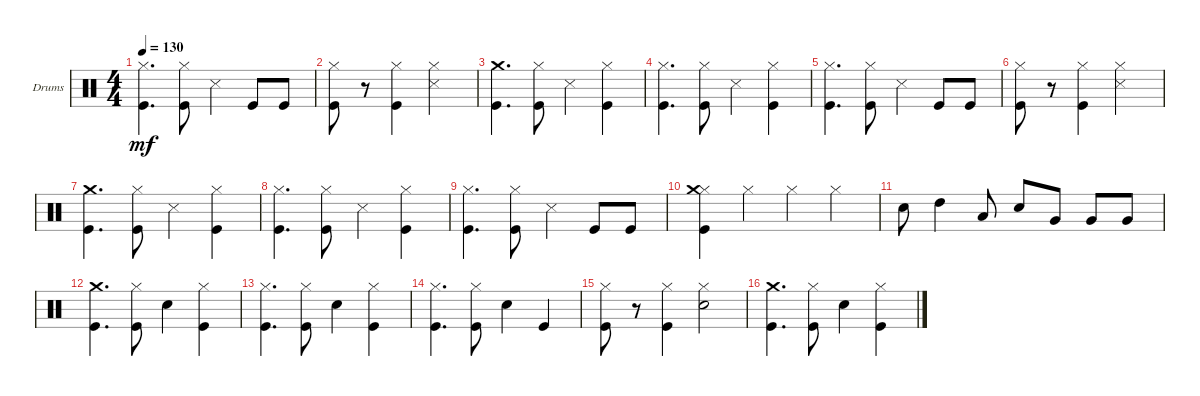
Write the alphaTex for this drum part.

\defaultSystemsLayout 4
\bracketExtendMode groupsimilarinstruments
\firstSystemTrackNameOrientation horizontal
\otherSystemsTrackNameOrientation horizontal
\track ("Drumkit" "Drums") {instrument percussion}
\staff {score}
\articulation defaults
\ts (4 4)
\tempo 130
\clef neutral
\ks c
("Kick (hit)" "Hi-Hat (closed)").4{d dy mf} ("Kick (hit)" "Hi-Hat (closed)").8 "Snare (side stick) 3".4 "Kick (hit)".8 "Kick (hit)".8 |
("Kick (hit)" "Hi-Hat (closed)").8 r.8 ("Kick (hit)" "Hi-Hat (closed)").4 ("Snare (side stick) 3" "Hi-Hat (closed)").2 |
("Kick (hit)" "Crash medium (hit)").4{d} ("Kick (hit)" "Hi-Hat (closed)").8 "Snare (side stick) 3".4 ("Kick (hit)" "Hi-Hat (closed)").4 |
("Kick (hit)" "Hi-Hat (closed)").4{d} ("Kick (hit)" "Hi-Hat (closed)").8 "Snare (side stick) 3".4 ("Kick (hit)" "Hi-Hat (closed)").4 |
("Kick (hit)" "Hi-Hat (closed)").4{d} ("Kick (hit)" "Hi-Hat (closed)").8 "Snare (side stick) 3".4 "Kick (hit)".8 "Kick (hit)".8 |
("Kick (hit)" "Hi-Hat (closed)").8 r.8 ("Kick (hit)" "Hi-Hat (closed)").4 ("Snare (side stick) 3" "Hi-Hat (closed)").2 |
("Kick (hit)" "Crash medium (hit)").4{d} ("Kick (hit)" "Hi-Hat (closed)").8 "Snare (side stick) 3".4 ("Kick (hit)" "Hi-Hat (closed)").4 |
("Kick (hit)" "Hi-Hat (closed)").4{d} ("Kick (hit)" "Hi-Hat (closed)").8 "Snare (side stick) 3".4 ("Kick (hit)" "Hi-Hat (closed)").4 |
("Kick (hit)" "Hi-Hat (closed)").4{d} ("Kick (hit)" "Hi-Hat (closed)").8 "Snare (side stick) 3".4 "Kick (hit)".8 "Kick (hit)".8 |
("Kick (hit)" "Hi-Hat (closed)" "Crash medium (hit)").4 "Hi-Hat (closed)".4 "Hi-Hat (closed)".4 "Hi-Hat (closed)".4 |
"Snare (hit) 2".8 "High Tom (hit)".4 "Low Tom (hit)".8 "Snare (hit) 2".8 "Very Low Tom (hit)".8 "Very Low Tom (hit)".8 "Very Low Tom (hit)".8 |
("Kick (hit)" "Crash medium (hit)").4{d} ("Kick (hit)" "Hi-Hat (closed)").8 "Snare (hit) 2".4 ("Kick (hit)" "Hi-Hat (closed)").4 |
("Kick (hit)" "Hi-Hat (closed)").4{d} ("Kick (hit)" "Hi-Hat (closed)").8 "Snare (hit) 2".4 ("Kick (hit)" "Hi-Hat (closed)").4 |
("Kick (hit)" "Hi-Hat (closed)").4{d} ("Kick (hit)" "Hi-Hat (closed)").8 "Snare (hit) 2".4 "Kick (hit)".4 |
("Kick (hit)" "Hi-Hat (closed)").8 r.8 ("Kick (hit)" "Hi-Hat (closed)").4 ("Snare (hit) 2" "Hi-Hat (closed)").2 |
("Kick (hit)" "Crash medium (hit)").4{d} ("Kick (hit)" "Hi-Hat (closed)").8 "Snare (hit) 2".4 ("Kick (hit)" "Hi-Hat (closed)").4
